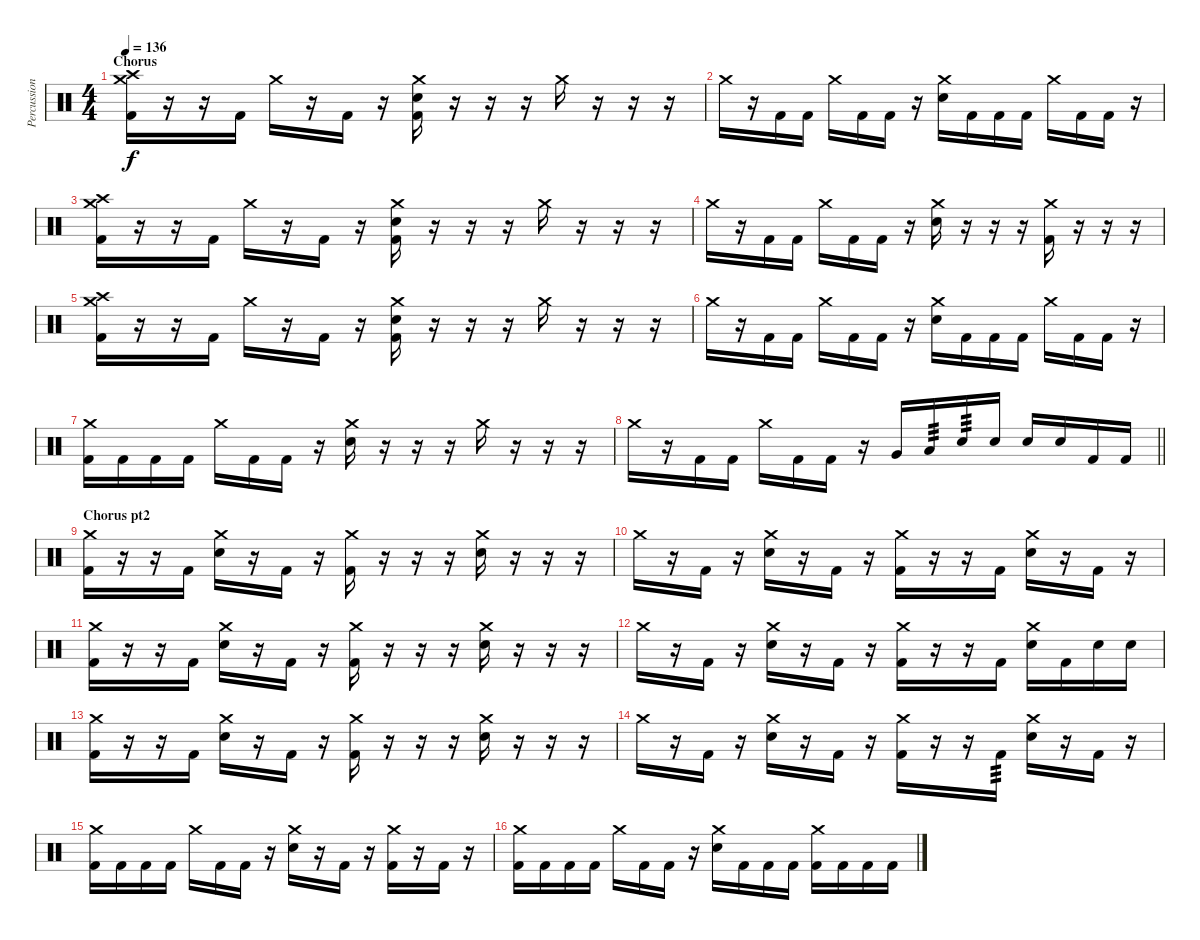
\track ("Percussion" "Percussion") {instrument percussion}
\staff {score}
\articulation defaults
\ts (4 4)
\section ("" "Chorus")
\tempo 136
\clef neutral
\ks c
("Crash high (hit)" "Crash medium (hit)" "Kick (hit) 2").16{dy f} r.16 r.16 "Kick (hit) 2".16 "Crash medium (hit)".16 r.16 "Kick (hit) 2".16 r.16 ("Crash medium (hit)" "Electric Snare (hit)" "Kick (hit) 2").16 r.16 r.16 r.16 "Crash medium (hit)".16 r.16 r.16 r.16 |
"Crash medium (hit)".16 r.16 "Kick (hit) 2".16 "Kick (hit) 2".16 "Crash medium (hit)".16 "Kick (hit) 2".16 "Kick (hit) 2".16 r.16 ("Crash medium (hit)" "Electric Snare (hit)").16 "Kick (hit) 2".16 "Kick (hit) 2".16 "Kick (hit) 2".16 "Crash medium (hit)".16 "Kick (hit) 2".16 "Kick (hit) 2".16 r.16 |
("Crash high (hit)" "Crash medium (hit)" "Kick (hit) 2").16 r.16 r.16 "Kick (hit) 2".16 "Crash medium (hit)".16 r.16 "Kick (hit) 2".16 r.16 ("Crash medium (hit)" "Electric Snare (hit)" "Kick (hit) 2").16 r.16 r.16 r.16 "Crash medium (hit)".16 r.16 r.16 r.16 |
"Crash medium (hit)".16 r.16 "Kick (hit) 2".16 "Kick (hit) 2".16 "Crash medium (hit)".16 "Kick (hit) 2".16 "Kick (hit) 2".16 r.16 ("Crash medium (hit)" "Electric Snare (hit)").16 r.16 r.16 r.16 ("Crash medium (hit)" "Kick (hit) 2").16 r.16 r.16 r.16 |
("Crash high (hit)" "Crash medium (hit)" "Kick (hit) 2").16 r.16 r.16 "Kick (hit) 2".16 "Crash medium (hit)".16 r.16 "Kick (hit) 2".16 r.16 ("Crash medium (hit)" "Electric Snare (hit)" "Kick (hit) 2").16 r.16 r.16 r.16 "Crash medium (hit)".16 r.16 r.16 r.16 |
"Crash medium (hit)".16 r.16 "Kick (hit) 2".16 "Kick (hit) 2".16 "Crash medium (hit)".16 "Kick (hit) 2".16 "Kick (hit) 2".16 r.16 ("Crash medium (hit)" "Electric Snare (hit)").16 "Kick (hit) 2".16 "Kick (hit) 2".16 "Kick (hit) 2".16 "Crash medium (hit)".16 "Kick (hit) 2".16 "Kick (hit) 2".16 r.16 |
("Crash medium (hit)" "Kick (hit) 2").16 "Kick (hit) 2".16 "Kick (hit) 2".16 "Kick (hit) 2".16 "Crash medium (hit)".16 "Kick (hit) 2".16 "Kick (hit) 2".16 r.16 ("Crash medium (hit)" "Electric Snare (hit)").16 r.16 r.16 r.16 "Crash medium (hit)".16 r.16 r.16 r.16 |
\barLineRight lightlight "Crash medium (hit)".16
r.16 "Kick (hit) 2".16 "Kick (hit) 2".16 "Crash medium (hit)".16 "Kick (hit) 2".16 "Kick (hit) 2".16 r.16 "Very Low Tom (hit)".16 "Low Tom (hit)".16{tp 3} "Electric Snare (hit)".16{tp 3} "Electric Snare (hit)".16 "Electric Snare (hit)".16 "Electric Snare (hit)".16 "Kick (hit) 2".16 "Kick (hit) 2".16 |
\section ("" "Chorus pt2")
("Crash medium (hit)" "Kick (hit) 2").16 r.16 r.16 "Kick (hit) 2".16 ("Crash medium (hit)" "Electric Snare (hit)").16 r.16 "Kick (hit) 2".16 r.16 ("Crash medium (hit)" "Kick (hit) 2").16 r.16 r.16 r.16 ("Crash medium (hit)" "Electric Snare (hit)").16 r.16 r.16 r.16 |
"Crash medium (hit)".16 r.16 "Kick (hit) 2".16 r.16 ("Crash medium (hit)" "Electric Snare (hit)").16 r.16 "Kick (hit) 2".16 r.16 ("Crash medium (hit)" "Kick (hit) 2").16 r.16 r.16 "Kick (hit) 2".16 ("Crash medium (hit)" "Electric Snare (hit)").16 r.16 "Kick (hit) 2".16 r.16 |
("Crash medium (hit)" "Kick (hit) 2").16 r.16 r.16 "Kick (hit) 2".16 ("Crash medium (hit)" "Electric Snare (hit)").16 r.16 "Kick (hit) 2".16 r.16 ("Crash medium (hit)" "Kick (hit) 2").16 r.16 r.16 r.16 ("Crash medium (hit)" "Electric Snare (hit)").16 r.16 r.16 r.16 |
"Crash medium (hit)".16 r.16 "Kick (hit) 2".16 r.16 ("Crash medium (hit)" "Electric Snare (hit)").16 r.16 "Kick (hit) 2".16 r.16 ("Crash medium (hit)" "Kick (hit) 2").16 r.16 r.16 "Kick (hit) 2".16 ("Crash medium (hit)" "Electric Snare (hit)").16 "Kick (hit) 2".16 "Electric Snare (hit)".16 "Electric Snare (hit)".16 |
("Crash medium (hit)" "Kick (hit) 2").16 r.16 r.16 "Kick (hit) 2".16 ("Crash medium (hit)" "Electric Snare (hit)").16 r.16 "Kick (hit) 2".16 r.16 ("Crash medium (hit)" "Kick (hit) 2").16 r.16 r.16 r.16 ("Crash medium (hit)" "Electric Snare (hit)").16 r.16 r.16 r.16 |
"Crash medium (hit)".16 r.16 "Kick (hit) 2".16 r.16 ("Crash medium (hit)" "Electric Snare (hit)").16 r.16 "Kick (hit) 2".16 r.16 ("Crash medium (hit)" "Kick (hit) 2").16 r.16 r.16 "Kick (hit) 2".16{tp 3} ("Crash medium (hit)" "Electric Snare (hit)").16 r.16 "Kick (hit) 2".16 r.16 |
("Crash medium (hit)" "Kick (hit) 2").16 "Kick (hit) 2".16 "Kick (hit) 2".16 "Kick (hit) 2".16 "Crash medium (hit)".16 "Kick (hit) 2".16 "Kick (hit) 2".16 r.16 ("Crash medium (hit)" "Electric Snare (hit)").16 r.16 "Kick (hit) 2".16 r.16 ("Crash medium (hit)" "Kick (hit) 2").16 r.16 "Kick (hit) 2".16 r.16 |
("Crash medium (hit)" "Kick (hit) 2").16 "Kick (hit) 2".16 "Kick (hit) 2".16 "Kick (hit) 2".16 "Crash medium (hit)".16 "Kick (hit) 2".16 "Kick (hit) 2".16 r.16 ("Crash medium (hit)" "Electric Snare (hit)").16 "Kick (hit) 2".16 "Kick (hit) 2".16 "Kick (hit) 2".16 ("Crash medium (hit)" "Kick (hit) 2").16 "Kick (hit) 2".16 "Kick (hit) 2".16 "Kick (hit) 2".16
